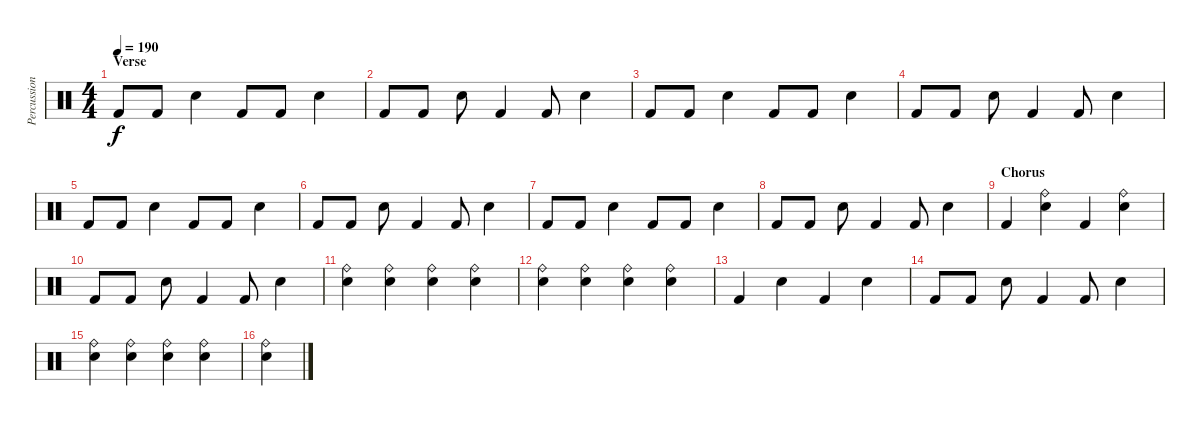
\track ("Percussion" "Percussion") {instrument percussion}
\staff {score}
\articulation defaults
\ts (4 4)
\section ("" "Verse")
\tempo 190
\clef neutral
\ks c "Kick (hit) 2".8{dy f} "Kick (hit) 2".8 "Snare (hit) 2".4 "Kick (hit) 2".8 "Kick (hit) 2".8 "Snare (hit) 2".4
|
"Kick (hit) 2".8 "Kick (hit) 2".8 "Snare (hit) 2".8 "Kick (hit) 2".4 "Kick (hit) 2".8 "Snare (hit) 2".4 |
"Kick (hit) 2".8 "Kick (hit) 2".8 "Snare (hit) 2".4 "Kick (hit) 2".8 "Kick (hit) 2".8 "Snare (hit) 2".4 |
"Kick (hit) 2".8 "Kick (hit) 2".8 "Snare (hit) 2".8 "Kick (hit) 2".4 "Kick (hit) 2".8 "Snare (hit) 2".4 |
"Kick (hit) 2".8 "Kick (hit) 2".8 "Snare (hit) 2".4 "Kick (hit) 2".8 "Kick (hit) 2".8 "Snare (hit) 2".4 |
"Kick (hit) 2".8 "Kick (hit) 2".8 "Snare (hit) 2".8 "Kick (hit) 2".4 "Kick (hit) 2".8 "Snare (hit) 2".4 |
"Kick (hit) 2".8 "Kick (hit) 2".8 "Snare (hit) 2".4 "Kick (hit) 2".8 "Kick (hit) 2".8 "Snare (hit) 2".4 |
"Kick (hit) 2".8 "Kick (hit) 2".8 "Snare (hit) 2".8 "Kick (hit) 2".4 "Kick (hit) 2".8 "Snare (hit) 2".4 |
\section ("" "Chorus")
"Kick (hit) 2".4 ("Snare (hit) 2" "Ride (bell)").4 "Kick (hit) 2".4 ("Snare (hit) 2" "Ride (bell)").4 |
"Kick (hit) 2".8 "Kick (hit) 2".8 "Snare (hit) 2".8 "Kick (hit) 2".4 "Kick (hit) 2".8 "Snare (hit) 2".4 |
("Snare (hit) 2" "Ride (bell)").4 ("Snare (hit) 2" "Ride (bell)").4 ("Snare (hit) 2" "Ride (bell)").4 ("Snare (hit) 2" "Ride (bell)").4 |
("Snare (hit) 2" "Ride (bell)").4 ("Snare (hit) 2" "Ride (bell)").4 ("Snare (hit) 2" "Ride (bell)").4 ("Snare (hit) 2" "Ride (bell)").4 |
"Kick (hit) 2".4 "Snare (hit) 2".4 "Kick (hit) 2".4 "Snare (hit) 2".4 |
"Kick (hit) 2".8 "Kick (hit) 2".8 "Snare (hit) 2".8 "Kick (hit) 2".4 "Kick (hit) 2".8 "Snare (hit) 2".4 |
("Snare (hit) 2" "Ride (bell)").4 ("Snare (hit) 2" "Ride (bell)").4 ("Snare (hit) 2" "Ride (bell)").4 ("Snare (hit) 2" "Ride (bell)").4 |
("Snare (hit) 2" "Ride (bell)").4
